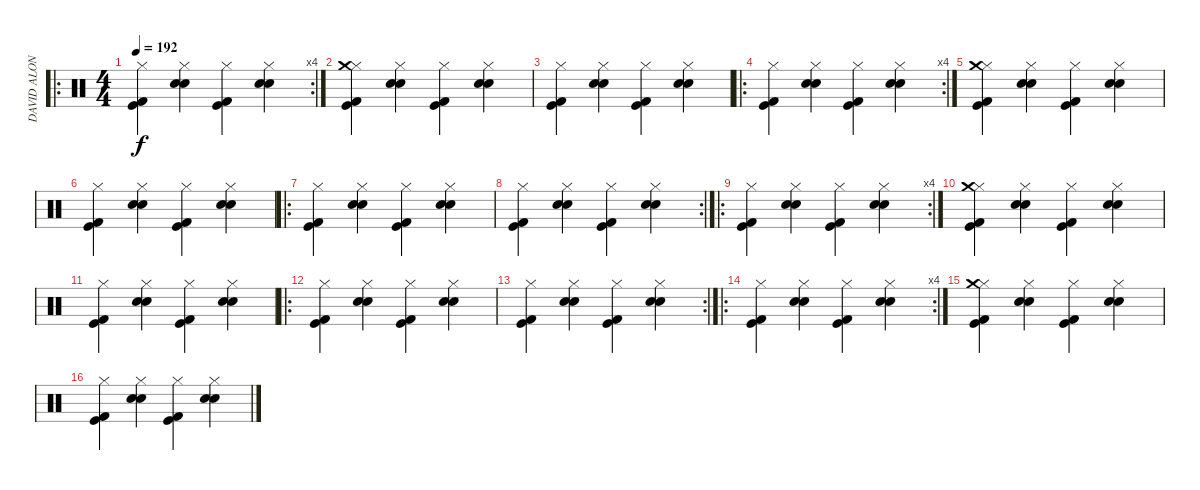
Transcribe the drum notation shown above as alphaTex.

\track ("DAVID ALONSO" "DAVID ALON") {instrument percussion}
\staff {score}
\articulation defaults
\ro
\rc 4
\ts (4 4)
\tempo 192
\clef neutral
\ks c
("Kick (hit)" "Kick (hit) 2" "Hi-Hat (closed)").4{dy f} ("Electric Snare (hit)" "Snare (hit) 2" "Hi-Hat (closed)").4 ("Kick (hit)" "Kick (hit) 2" "Hi-Hat (closed)").4 ("Electric Snare (hit)" "Snare (hit) 2" "Hi-Hat (closed)").4 |
("Kick (hit)" "Kick (hit) 2" "Hi-Hat (closed)" "Crash medium (hit)").4 ("Electric Snare (hit)" "Snare (hit) 2" "Hi-Hat (closed)").4 ("Kick (hit)" "Kick (hit) 2" "Hi-Hat (closed)").4 ("Electric Snare (hit)" "Snare (hit) 2" "Hi-Hat (closed)").4 |
("Kick (hit)" "Kick (hit) 2" "Hi-Hat (closed)").4 ("Electric Snare (hit)" "Snare (hit) 2" "Hi-Hat (closed)").4 ("Kick (hit)" "Kick (hit) 2" "Hi-Hat (closed)").4 ("Electric Snare (hit)" "Snare (hit) 2" "Hi-Hat (closed)").4 |
\ro
\rc 4
("Kick (hit)" "Kick (hit) 2" "Hi-Hat (closed)").4 ("Electric Snare (hit)" "Snare (hit) 2" "Hi-Hat (closed)").4 ("Kick (hit)" "Kick (hit) 2" "Hi-Hat (closed)").4 ("Electric Snare (hit)" "Snare (hit) 2" "Hi-Hat (closed)").4 |
("Kick (hit)" "Kick (hit) 2" "Hi-Hat (closed)" "Crash medium (hit)").4 ("Electric Snare (hit)" "Snare (hit) 2" "Hi-Hat (closed)").4 ("Kick (hit)" "Kick (hit) 2" "Hi-Hat (closed)").4 ("Electric Snare (hit)" "Snare (hit) 2" "Hi-Hat (closed)").4 |
("Kick (hit)" "Kick (hit) 2" "Hi-Hat (closed)").4 ("Electric Snare (hit)" "Snare (hit) 2" "Hi-Hat (closed)").4 ("Kick (hit)" "Kick (hit) 2" "Hi-Hat (closed)").4 ("Electric Snare (hit)" "Snare (hit) 2" "Hi-Hat (closed)").4 |
\ro
("Kick (hit)" "Kick (hit) 2" "Hi-Hat (closed)").4 ("Electric Snare (hit)" "Snare (hit) 2" "Hi-Hat (closed)").4 ("Kick (hit)" "Kick (hit) 2" "Hi-Hat (closed)").4 ("Electric Snare (hit)" "Snare (hit) 2" "Hi-Hat (closed)").4 |
\rc 2
("Kick (hit)" "Kick (hit) 2" "Hi-Hat (closed)").4 ("Electric Snare (hit)" "Snare (hit) 2" "Hi-Hat (closed)").4 ("Kick (hit)" "Kick (hit) 2" "Hi-Hat (closed)").4 ("Electric Snare (hit)" "Snare (hit) 2" "Hi-Hat (closed)").4 |
\ro
\rc 4
("Kick (hit)" "Kick (hit) 2" "Hi-Hat (closed)").4 ("Electric Snare (hit)" "Snare (hit) 2" "Hi-Hat (closed)").4 ("Kick (hit)" "Kick (hit) 2" "Hi-Hat (closed)").4 ("Electric Snare (hit)" "Snare (hit) 2" "Hi-Hat (closed)").4 |
("Kick (hit)" "Kick (hit) 2" "Hi-Hat (closed)" "Crash medium (hit)").4 ("Electric Snare (hit)" "Snare (hit) 2" "Hi-Hat (closed)").4 ("Kick (hit)" "Kick (hit) 2" "Hi-Hat (closed)").4 ("Electric Snare (hit)" "Snare (hit) 2" "Hi-Hat (closed)").4 |
("Kick (hit)" "Kick (hit) 2" "Hi-Hat (closed)").4 ("Electric Snare (hit)" "Snare (hit) 2" "Hi-Hat (closed)").4 ("Kick (hit)" "Kick (hit) 2" "Hi-Hat (closed)").4 ("Electric Snare (hit)" "Snare (hit) 2" "Hi-Hat (closed)").4 |
\ro
("Kick (hit)" "Kick (hit) 2" "Hi-Hat (closed)").4 ("Electric Snare (hit)" "Snare (hit) 2" "Hi-Hat (closed)").4 ("Kick (hit)" "Kick (hit) 2" "Hi-Hat (closed)").4 ("Electric Snare (hit)" "Snare (hit) 2" "Hi-Hat (closed)").4 |
\rc 2
("Kick (hit)" "Kick (hit) 2" "Hi-Hat (closed)").4 ("Electric Snare (hit)" "Snare (hit) 2" "Hi-Hat (closed)").4 ("Kick (hit)" "Kick (hit) 2" "Hi-Hat (closed)").4 ("Electric Snare (hit)" "Snare (hit) 2" "Hi-Hat (closed)").4 |
\ro
\rc 4
("Kick (hit)" "Kick (hit) 2" "Hi-Hat (closed)").4 ("Electric Snare (hit)" "Snare (hit) 2" "Hi-Hat (closed)").4 ("Kick (hit)" "Kick (hit) 2" "Hi-Hat (closed)").4 ("Electric Snare (hit)" "Snare (hit) 2" "Hi-Hat (closed)").4 |
("Kick (hit)" "Kick (hit) 2" "Hi-Hat (closed)" "Crash medium (hit)").4 ("Electric Snare (hit)" "Snare (hit) 2" "Hi-Hat (closed)").4 ("Kick (hit)" "Kick (hit) 2" "Hi-Hat (closed)").4 ("Electric Snare (hit)" "Snare (hit) 2" "Hi-Hat (closed)").4 |
("Kick (hit)" "Kick (hit) 2" "Hi-Hat (closed)").4 ("Electric Snare (hit)" "Snare (hit) 2" "Hi-Hat (closed)").4 ("Kick (hit)" "Kick (hit) 2" "Hi-Hat (closed)").4 ("Electric Snare (hit)" "Snare (hit) 2" "Hi-Hat (closed)").4
